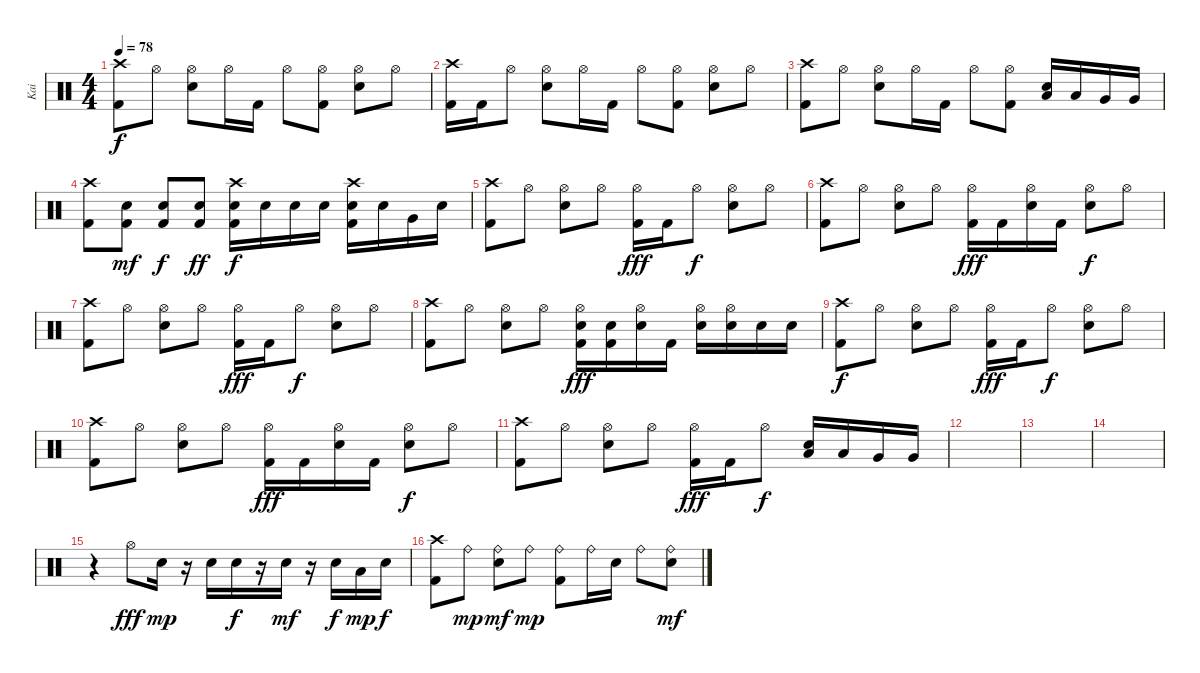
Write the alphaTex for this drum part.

\track ("Kai" "Kai") {instrument percussion}
\staff {score}
\articulation defaults
\ts (4 4)
\tempo 78
\clef neutral
\ks c
("Crash high (hit)" "Kick (hit) 2").8{dy f} "Hi-Hat (open)".8 ("Hi-Hat (open)" "Electric Snare (hit)").8 "Hi-Hat (open)".16 "Kick (hit) 2".16 "Hi-Hat (open)".8 ("Hi-Hat (open)" "Kick (hit) 2").8 ("Hi-Hat (open)" "Electric Snare (hit)").8 "Hi-Hat (open)".8 |
("Crash high (hit)" "Kick (hit) 2").16 "Kick (hit) 2".16 "Hi-Hat (open)".8 ("Hi-Hat (open)" "Electric Snare (hit)").8 "Hi-Hat (open)".16 "Kick (hit) 2".16 "Hi-Hat (open)".8 ("Hi-Hat (open)" "Kick (hit) 2").8 ("Hi-Hat (open)" "Electric Snare (hit)").8 "Hi-Hat (open)".8 |
("Crash high (hit)" "Kick (hit) 2").8 "Hi-Hat (open)".8 ("Hi-Hat (open)" "Electric Snare (hit)").8 "Hi-Hat (open)".16 "Kick (hit) 2".16 "Hi-Hat (open)".8 ("Hi-Hat (open)" "Kick (hit) 2").8 ("Low Tom (hit)" "Electric Snare (hit)").16 "Low Tom (hit)".16 "Very Low Tom (hit)".16 "Very Low Tom (hit)".16 |
("Crash high (hit)" "Kick (hit) 2").8 ("Electric Snare (hit)" "Kick (hit) 2").8{dy mf} ("Electric Snare (hit)" "Kick (hit) 2").8{dy f} ("Electric Snare (hit)" "Kick (hit) 2").8{dy ff} ("Crash high (hit)" "Electric Snare (hit)" "Kick (hit) 2").16{dy f} "Electric Snare (hit)".16 "Electric Snare (hit)".16 "Electric Snare (hit)".16 ("Crash high (hit)" "Electric Snare (hit)" "Kick (hit) 2").16 "Electric Snare (hit)".16 "Very Low Tom (hit)".16 "Electric Snare (hit)".16 |
("Crash high (hit)" "Kick (hit) 2").8 "Hi-Hat (open)".8 ("Hi-Hat (open)" "Electric Snare (hit)").8 "Hi-Hat (open)".8 ("Hi-Hat (open)" "Kick (hit) 2").16{dy fff} "Kick (hit) 2".16 "Hi-Hat (open)".8{dy f} ("Hi-Hat (open)" "Electric Snare (hit)").8 "Hi-Hat (open)".8 |
("Crash high (hit)" "Kick (hit) 2").8 "Hi-Hat (open)".8 ("Hi-Hat (open)" "Electric Snare (hit)").8 "Hi-Hat (open)".8 ("Hi-Hat (open)" "Kick (hit) 2").16{dy fff} "Kick (hit) 2".16 ("Hi-Hat (open)" "Electric Snare (hit)").16 "Kick (hit) 2".16 ("Hi-Hat (open)" "Electric Snare (hit)").8{dy f} "Hi-Hat (open)".8 |
("Crash high (hit)" "Kick (hit) 2").8 "Hi-Hat (open)".8 ("Hi-Hat (open)" "Electric Snare (hit)").8 "Hi-Hat (open)".8 ("Hi-Hat (open)" "Kick (hit) 2").16{dy fff} "Kick (hit) 2".16 "Hi-Hat (open)".8{dy f} ("Hi-Hat (open)" "Electric Snare (hit)").8 "Hi-Hat (open)".8 |
("Crash high (hit)" "Kick (hit) 2").8 "Hi-Hat (open)".8 ("Hi-Hat (open)" "Electric Snare (hit)").8 "Hi-Hat (open)".8 ("Hi-Hat (open)" "Electric Snare (hit)" "Kick (hit) 2").16{dy fff} ("Electric Snare (hit)" "Kick (hit) 2").16 ("Hi-Hat (open)" "Electric Snare (hit)").16 "Kick (hit) 2".16 ("Hi-Hat (open)" "Electric Snare (hit)").16 ("Hi-Hat (open)" "Electric Snare (hit)").16 "Electric Snare (hit)".16 "Electric Snare (hit)".16 |
("Crash high (hit)" "Kick (hit) 2").8{dy f} "Hi-Hat (open)".8 ("Hi-Hat (open)" "Electric Snare (hit)").8 "Hi-Hat (open)".8 ("Hi-Hat (open)" "Kick (hit) 2").16{dy fff} "Kick (hit) 2".16 "Hi-Hat (open)".8{dy f} ("Hi-Hat (open)" "Electric Snare (hit)").8 "Hi-Hat (open)".8 |
("Crash high (hit)" "Kick (hit) 2").8 "Hi-Hat (open)".8 ("Hi-Hat (open)" "Electric Snare (hit)").8 "Hi-Hat (open)".8 ("Hi-Hat (open)" "Kick (hit) 2").16{dy fff} "Kick (hit) 2".16 ("Hi-Hat (open)" "Electric Snare (hit)").16 "Kick (hit) 2".16 ("Hi-Hat (open)" "Electric Snare (hit)").8{dy f} "Hi-Hat (open)".8 |
("Crash high (hit)" "Kick (hit) 2").8 "Hi-Hat (open)".8 ("Hi-Hat (open)" "Electric Snare (hit)").8 "Hi-Hat (open)".8 ("Hi-Hat (open)" "Kick (hit) 2").16{dy fff} "Kick (hit) 2".16 "Hi-Hat (open)".8{dy f} ("Low Tom (hit)" "Electric Snare (hit)").16 "Low Tom (hit)".16 "Very Low Tom (hit)".16 "Very Low Tom (hit)".16 |
|
|
|
r.4 "Hi-Hat (open)".8{dy fff} "Electric Snare (hit)".16{dy mp} r.16 "Electric Snare (hit)".16 "Electric Snare (hit)".16{dy f} r.16 "Electric Snare (hit)".16{dy mf} r.16 "Electric Snare (hit)".16{dy f} "Low Tom (hit)".16{dy mp} "Electric Snare (hit)".16{dy f} |
("Crash high (hit)" "Kick (hit) 2").8 "Ride (bell)".8{dy mp} ("Ride (bell)" "Electric Snare (hit)").8{dy mf} "Ride (bell)".8{dy mp} ("Ride (bell)" "Kick (hit) 2").8 "Ride (bell)".16 "Electric Snare (hit)".16 "Ride (bell)".8 ("Ride (bell)" "Electric Snare (hit)").8{dy mf}
